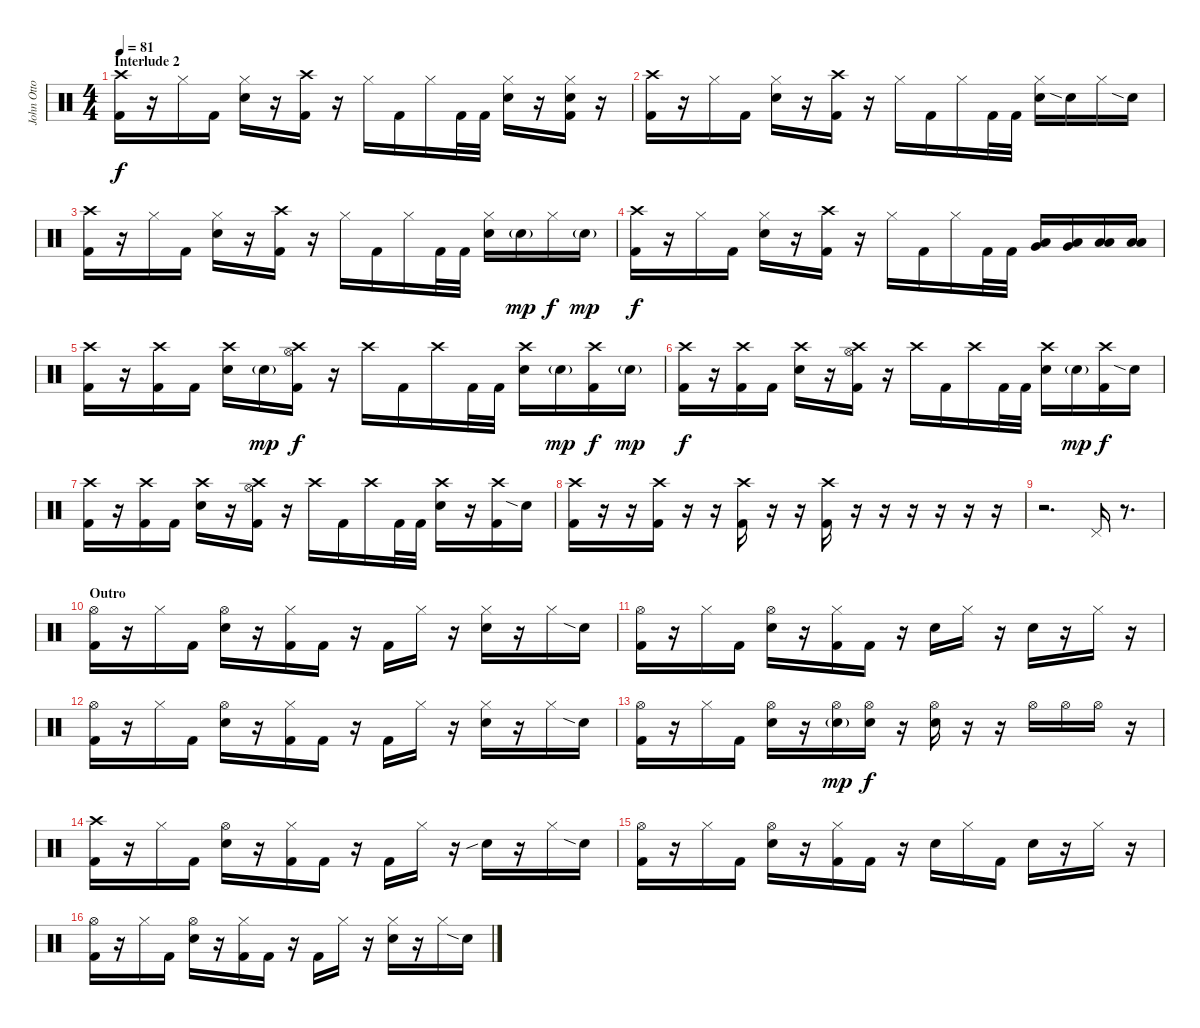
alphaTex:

\track ("John Otto" "John Otto") {instrument percussion}
\staff {score}
\articulation defaults
\ts (4 4)
\section ("" "Interlude 2")
\tempo 81
\clef neutral
\ks c
("Crash high (hit)" "Kick (hit) 2").16{dy f} r.16 "Hi-Hat (closed)".16 "Kick (hit) 2".16 ("Hi-Hat (closed)" "Snare (hit) 2").16 r.16 ("Crash high (hit)" "Kick (hit) 2").16 r.16 "Hi-Hat (closed)".16 "Kick (hit) 2".16 "Hi-Hat (closed)".16 "Kick (hit) 2".32 "Kick (hit) 2".32 ("Hi-Hat (closed)" "Snare (hit) 2").16 r.16 ("Hi-Hat (closed)" "Snare (hit) 2" "Kick (hit) 2").16 r.16 |
("Crash high (hit)" "Kick (hit) 2").16 r.16 "Hi-Hat (closed)".16 "Kick (hit) 2".16 ("Hi-Hat (closed)" "Snare (hit) 2").16 r.16 ("Crash high (hit)" "Kick (hit) 2").16 r.16 "Hi-Hat (closed)".16 "Kick (hit) 2".16 "Hi-Hat (closed)".16 "Kick (hit) 2".32 "Kick (hit) 2".32 ("Hi-Hat (closed)" "Snare (hit) 2").16 "Snare (hit) 2"{sia}.16 "Hi-Hat (closed)".16 "Snare (hit) 2"{sia}.16 |
("Crash high (hit)" "Kick (hit) 2").16 r.16 "Hi-Hat (closed)".16 "Kick (hit) 2".16 ("Hi-Hat (closed)" "Snare (hit) 2").16 r.16 ("Crash high (hit)" "Kick (hit) 2").16 r.16 "Hi-Hat (closed)".16 "Kick (hit) 2".16 "Hi-Hat (closed)".16 "Kick (hit) 2".32 "Kick (hit) 2".32 ("Hi-Hat (closed)" "Snare (hit) 2").16 "Snare (hit) 2"{g}.16{dy mp} "Hi-Hat (closed)".16{dy f} "Snare (hit) 2"{g}.16{dy mp} |
("Crash high (hit)" "Kick (hit) 2").16{dy f} r.16 "Hi-Hat (closed)".16 "Kick (hit) 2".16 ("Hi-Hat (closed)" "Snare (hit) 2").16 r.16 ("Crash high (hit)" "Kick (hit) 2").16 r.16 "Hi-Hat (closed)".16 "Kick (hit) 2".16 "Hi-Hat (closed)".16 "Kick (hit) 2".32 "Kick (hit) 2".32 ("Very Low Tom (hit)" "Low Floor Tom (hit)").16 ("Very Low Tom (hit)" "Low Floor Tom (hit)").16 ("Low Tom (hit)" "Low Floor Tom (hit)").16 ("Low Tom (hit)" "Low Floor Tom (hit)").16 |
("Crash high (hit)" "Kick (hit) 2").16 r.16 ("Crash high (hit)" "Kick (hit) 2").16 "Kick (hit) 2".16 ("Crash high (hit)" "Snare (hit) 2").16 "Snare (hit) 2"{g}.16{dy mp} ("Crash high (hit)" "Hi-Hat (open)" "Kick (hit) 2").16{dy f} r.16 "Crash high (hit)".16 "Kick (hit) 2".16 "Crash high (hit)".16 "Kick (hit) 2".32 "Kick (hit) 2".32 ("Crash high (hit)" "Snare (hit) 2").16 "Snare (hit) 2"{g}.16{dy mp} ("Crash high (hit)" "Kick (hit) 2").16{dy f} "Snare (hit) 2"{g}.16{dy mp} |
("Crash high (hit)" "Kick (hit) 2").16{dy f} r.16 ("Crash high (hit)" "Kick (hit) 2").16 "Kick (hit) 2".16 ("Crash high (hit)" "Snare (hit) 2").16 r.16 ("Crash high (hit)" "Hi-Hat (open)" "Kick (hit) 2").16 r.16 "Crash high (hit)".16 "Kick (hit) 2".16 "Crash high (hit)".16 "Kick (hit) 2".32 "Kick (hit) 2".32 ("Crash high (hit)" "Snare (hit) 2").16 "Snare (hit) 2"{g}.16{dy mp} ("Crash high (hit)" "Kick (hit) 2").16{dy f} "Snare (hit) 2"{sia}.16 |
("Crash high (hit)" "Kick (hit) 2").16 r.16 ("Crash high (hit)" "Kick (hit) 2").16 "Kick (hit) 2".16 ("Crash high (hit)" "Snare (hit) 2").16 r.16 ("Crash high (hit)" "Hi-Hat (open)" "Kick (hit) 2").16 r.16 "Crash high (hit)".16 "Kick (hit) 2".16 "Crash high (hit)".16 "Kick (hit) 2".32 "Kick (hit) 2".32 ("Crash high (hit)" "Snare (hit) 2").16 r.16 ("Crash high (hit)" "Kick (hit) 2").16 "Snare (hit) 2"{sia}.16 |
("Crash high (hit)" "Kick (hit) 2").16 r.16 r.16 ("Crash high (hit)" "Kick (hit) 2").16 r.16 r.16 ("Crash high (hit)" "Kick (hit) 2").16 r.16 r.16 ("Crash high (hit)" "Kick (hit) 2").16 r.16 r.16 r.16 r.16 r.16 r.16 |
r.2{d} "Pedal Hi-Hat (hit)".16 r.8{d} |
\section ("" "Outro")
("Hi-Hat (open)" "Kick (hit) 2").16 r.16 "Hi-Hat (closed)".16 "Kick (hit) 2".16 ("Hi-Hat (open)" "Snare (hit) 2").16 r.16 ("Hi-Hat (closed)" "Kick (hit) 2").16 "Kick (hit) 2".16 r.16 "Kick (hit) 2".16 "Hi-Hat (closed)".16 r.16 ("Hi-Hat (closed)" "Snare (hit) 2").16 r.16 "Hi-Hat (closed)".16 "Snare (hit) 2"{sia}.16 |
("Hi-Hat (open)" "Kick (hit) 2").16 r.16 "Hi-Hat (closed)".16 "Kick (hit) 2".16 ("Hi-Hat (open)" "Snare (hit) 2").16 r.16 ("Hi-Hat (closed)" "Kick (hit) 2").16 "Kick (hit) 2".16 r.16 "Snare (hit) 2".16 "Hi-Hat (closed)".16 r.16 "Snare (hit) 2".16 r.16 "Hi-Hat (closed)".16 r.16 |
("Hi-Hat (open)" "Kick (hit) 2").16 r.16 "Hi-Hat (closed)".16 "Kick (hit) 2".16 ("Hi-Hat (open)" "Snare (hit) 2").16 r.16 ("Hi-Hat (closed)" "Kick (hit) 2").16 "Kick (hit) 2".16 r.16 "Kick (hit) 2".16 "Hi-Hat (closed)".16 r.16 ("Hi-Hat (closed)" "Snare (hit) 2").16 r.16 "Hi-Hat (closed)".16 "Snare (hit) 2"{sia}.16 |
("Hi-Hat (open)" "Kick (hit) 2").16 r.16 "Hi-Hat (closed)".16 "Kick (hit) 2".16 ("Hi-Hat (open)" "Snare (hit) 2").16 r.16 ("Hi-Hat (open)" "Snare (hit) 2"{g}).16{dy mp} ("Hi-Hat (open)" "Snare (hit) 2").16{dy f} r.16 ("Hi-Hat (open)" "Snare (hit) 2").16 r.16 r.16 "Hi-Hat (open)".16 "Hi-Hat (open)".16 "Hi-Hat (open)".16 r.16 |
("Crash high (hit)" "Kick (hit) 2").16 r.16 "Hi-Hat (closed)".16 "Kick (hit) 2".16 ("Hi-Hat (open)" "Snare (hit) 2").16 r.16 ("Hi-Hat (closed)" "Kick (hit) 2").16 "Kick (hit) 2".16 r.16 "Kick (hit) 2".16 "Hi-Hat (closed)".16 r.16 "Snare (hit) 2"{sib}.16 r.16 "Hi-Hat (closed)".16 "Snare (hit) 2"{sia}.16 |
("Hi-Hat (open)" "Kick (hit) 2").16 r.16 "Hi-Hat (closed)".16 "Kick (hit) 2".16 ("Hi-Hat (open)" "Snare (hit) 2").16 r.16 ("Hi-Hat (closed)" "Kick (hit) 2").16 "Kick (hit) 2".16 r.16 "Snare (hit) 2".16 "Hi-Hat (closed)".16 "Kick (hit) 2".16 "Snare (hit) 2".16 r.16 "Hi-Hat (closed)".16 r.16 |
("Hi-Hat (open)" "Kick (hit) 2").16 r.16 "Hi-Hat (closed)".16 "Kick (hit) 2".16 ("Hi-Hat (open)" "Snare (hit) 2").16 r.16 ("Hi-Hat (closed)" "Kick (hit) 2").16 "Kick (hit) 2".16 r.16 "Kick (hit) 2".16 "Hi-Hat (closed)".16 r.16 ("Hi-Hat (closed)" "Snare (hit) 2").16 r.16 "Hi-Hat (closed)".16 "Snare (hit) 2"{sia}.16
